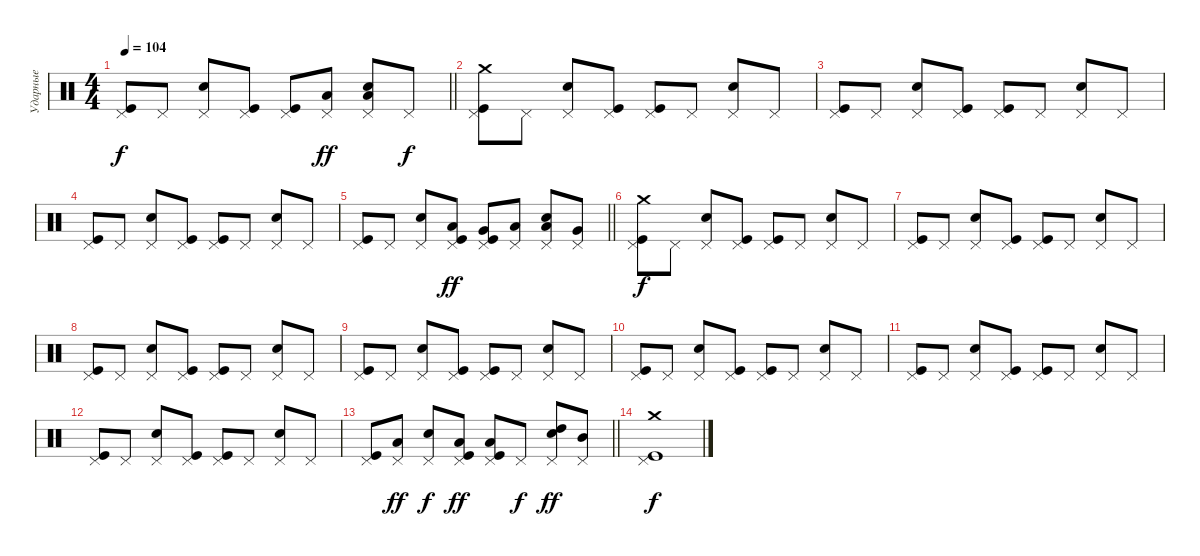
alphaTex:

\track ("Ударные" "Ударные") {instrument percussion}
\staff {score}
\articulation defaults
\ts (4 4)
\tempo 104
\clef neutral
\barLineRight lightlight
\ks c
("Pedal Hi-Hat (hit)" "Kick (hit)").8{dy f} "Pedal Hi-Hat (hit)".8 ("Pedal Hi-Hat (hit)" "Snare (hit) 2").8 ("Pedal Hi-Hat (hit)" "Kick (hit)").8 ("Pedal Hi-Hat (hit)" "Kick (hit)").8 ("Pedal Hi-Hat (hit)" "Low Tom (hit)").8{dy ff} ("Pedal Hi-Hat (hit)" "Snare (hit) 2" "Low Tom (hit)").8 "Pedal Hi-Hat (hit)".8{dy f} |
("Pedal Hi-Hat (hit)" "Kick (hit)" "Crash medium (hit)").8 "Pedal Hi-Hat (hit)".8 ("Pedal Hi-Hat (hit)" "Snare (hit) 2").8 ("Pedal Hi-Hat (hit)" "Kick (hit)").8 ("Pedal Hi-Hat (hit)" "Kick (hit)").8 "Pedal Hi-Hat (hit)".8 ("Pedal Hi-Hat (hit)" "Snare (hit) 2").8 "Pedal Hi-Hat (hit)".8 |
("Pedal Hi-Hat (hit)" "Kick (hit)").8 "Pedal Hi-Hat (hit)".8 ("Pedal Hi-Hat (hit)" "Snare (hit) 2").8 ("Pedal Hi-Hat (hit)" "Kick (hit)").8 ("Pedal Hi-Hat (hit)" "Kick (hit)").8 "Pedal Hi-Hat (hit)".8 ("Pedal Hi-Hat (hit)" "Snare (hit) 2").8 "Pedal Hi-Hat (hit)".8 |
("Pedal Hi-Hat (hit)" "Kick (hit)").8 "Pedal Hi-Hat (hit)".8 ("Pedal Hi-Hat (hit)" "Snare (hit) 2").8 ("Pedal Hi-Hat (hit)" "Kick (hit)").8 ("Pedal Hi-Hat (hit)" "Kick (hit)").8 "Pedal Hi-Hat (hit)".8 ("Pedal Hi-Hat (hit)" "Snare (hit) 2").8 "Pedal Hi-Hat (hit)".8 |
\barLineRight lightlight
("Pedal Hi-Hat (hit)" "Kick (hit)").8 "Pedal Hi-Hat (hit)".8 ("Pedal Hi-Hat (hit)" "Snare (hit) 2").8 ("Pedal Hi-Hat (hit)" "Kick (hit)" "Low Floor Tom (hit)").8{dy ff} ("Pedal Hi-Hat (hit)" "Kick (hit)" "Very Low Tom (hit)").8 ("Pedal Hi-Hat (hit)" "Low Floor Tom (hit)").8 ("Pedal Hi-Hat (hit)" "Snare (hit) 2" "Low Tom (hit)").8 ("Pedal Hi-Hat (hit)" "Very Low Tom (hit)").8 |
("Pedal Hi-Hat (hit)" "Kick (hit)" "Crash medium (hit)").8{dy f} "Pedal Hi-Hat (hit)".8 ("Pedal Hi-Hat (hit)" "Snare (hit) 2").8 ("Pedal Hi-Hat (hit)" "Kick (hit)").8 ("Pedal Hi-Hat (hit)" "Kick (hit)").8 "Pedal Hi-Hat (hit)".8 ("Pedal Hi-Hat (hit)" "Snare (hit) 2").8 "Pedal Hi-Hat (hit)".8 |
("Pedal Hi-Hat (hit)" "Kick (hit)").8 "Pedal Hi-Hat (hit)".8 ("Pedal Hi-Hat (hit)" "Snare (hit) 2").8 ("Pedal Hi-Hat (hit)" "Kick (hit)").8 ("Pedal Hi-Hat (hit)" "Kick (hit)").8 "Pedal Hi-Hat (hit)".8 ("Pedal Hi-Hat (hit)" "Snare (hit) 2").8 "Pedal Hi-Hat (hit)".8 |
("Pedal Hi-Hat (hit)" "Kick (hit)").8 "Pedal Hi-Hat (hit)".8 ("Pedal Hi-Hat (hit)" "Snare (hit) 2").8 ("Pedal Hi-Hat (hit)" "Kick (hit)").8 ("Pedal Hi-Hat (hit)" "Kick (hit)").8 "Pedal Hi-Hat (hit)".8 ("Pedal Hi-Hat (hit)" "Snare (hit) 2").8 "Pedal Hi-Hat (hit)".8 |
("Pedal Hi-Hat (hit)" "Kick (hit)").8 "Pedal Hi-Hat (hit)".8 ("Pedal Hi-Hat (hit)" "Snare (hit) 2").8 ("Pedal Hi-Hat (hit)" "Kick (hit)").8 ("Pedal Hi-Hat (hit)" "Kick (hit)").8 "Pedal Hi-Hat (hit)".8 ("Pedal Hi-Hat (hit)" "Snare (hit) 2").8 "Pedal Hi-Hat (hit)".8 |
("Pedal Hi-Hat (hit)" "Kick (hit)").8 "Pedal Hi-Hat (hit)".8 ("Pedal Hi-Hat (hit)" "Snare (hit) 2").8 ("Pedal Hi-Hat (hit)" "Kick (hit)").8 ("Pedal Hi-Hat (hit)" "Kick (hit)").8 "Pedal Hi-Hat (hit)".8 ("Pedal Hi-Hat (hit)" "Snare (hit) 2").8 "Pedal Hi-Hat (hit)".8 |
("Pedal Hi-Hat (hit)" "Kick (hit)").8 "Pedal Hi-Hat (hit)".8 ("Pedal Hi-Hat (hit)" "Snare (hit) 2").8 ("Pedal Hi-Hat (hit)" "Kick (hit)").8 ("Pedal Hi-Hat (hit)" "Kick (hit)").8 "Pedal Hi-Hat (hit)".8 ("Pedal Hi-Hat (hit)" "Snare (hit) 2").8 "Pedal Hi-Hat (hit)".8 |
("Pedal Hi-Hat (hit)" "Kick (hit)").8 "Pedal Hi-Hat (hit)".8 ("Pedal Hi-Hat (hit)" "Snare (hit) 2").8 ("Pedal Hi-Hat (hit)" "Kick (hit)").8 ("Pedal Hi-Hat (hit)" "Kick (hit)").8 "Pedal Hi-Hat (hit)".8 ("Pedal Hi-Hat (hit)" "Snare (hit) 2").8 "Pedal Hi-Hat (hit)".8 |
\barLineRight lightlight
("Pedal Hi-Hat (hit)" "Kick (hit)").8 ("Pedal Hi-Hat (hit)" "Low Floor Tom (hit)").8{dy ff} ("Pedal Hi-Hat (hit)" "Snare (hit) 2").8{dy f} ("Pedal Hi-Hat (hit)" "Kick (hit)" "Low Tom (hit)").8{dy ff} ("Pedal Hi-Hat (hit)" "Kick (hit)" "Low Tom (hit)").8 "Pedal Hi-Hat (hit)".8{dy f} ("Pedal Hi-Hat (hit)" "Snare (hit) 2" "High Tom (hit)").8{dy ff} ("Pedal Hi-Hat (hit)" "Mid Tom (hit)").8 |
("Pedal Hi-Hat (hit)" "Kick (hit)" "Crash medium (hit)").1{dy f}
